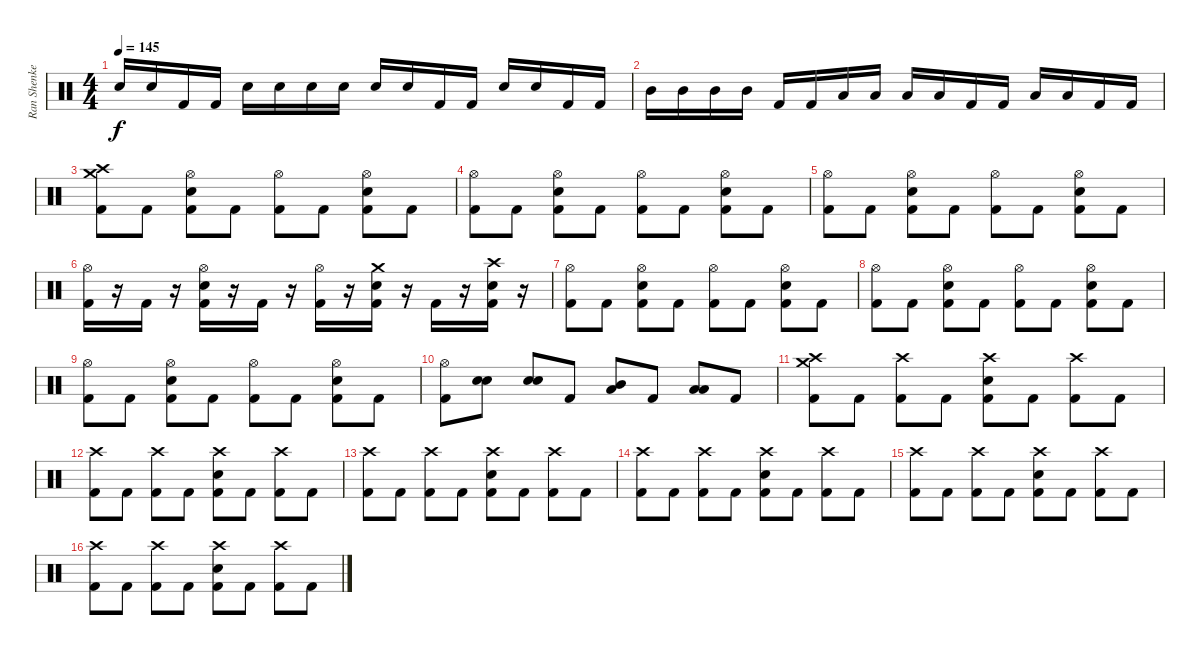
\track ("Ran Shenkerman" "Ran Shenke") {instrument percussion}
\staff {score}
\articulation defaults
\ts (4 4)
\tempo 145
\clef neutral
\ks c "Snare (hit) 2".16{dy f} "Snare (hit) 2".16 "Kick (hit) 2".16 "Kick (hit) 2".16 "Snare (hit) 2".16 "Snare (hit) 2".16 "Snare (hit) 2".16 "Snare (hit) 2".16 "Snare (hit) 2".16 "Snare (hit) 2".16 "Kick (hit) 2".16 "Kick (hit) 2".16 "Snare (hit) 2".16 "Snare (hit) 2".16 "Kick (hit) 2".16 "Kick (hit) 2".16
|
"Mid Tom (hit)".16 "Mid Tom (hit)".16 "Mid Tom (hit)".16 "Mid Tom (hit)".16 "Kick (hit) 2".16 "Kick (hit) 2".16 "Low Tom (hit)".16 "Low Tom (hit)".16 "Low Tom (hit)".16 "Low Tom (hit)".16 "Kick (hit) 2".16 "Kick (hit) 2".16 "Low Floor Tom (hit)".16 "Low Floor Tom (hit)".16 "Kick (hit) 2".16 "Kick (hit) 2".16 |
("Crash medium (hit)" "Crash high (hit)" "Kick (hit) 2").8 "Kick (hit) 2".8 ("Hi-Hat (open)" "Snare (hit) 2" "Kick (hit) 2").8 "Kick (hit) 2".8 ("Hi-Hat (open)" "Kick (hit) 2").8 "Kick (hit) 2".8 ("Hi-Hat (open)" "Snare (hit) 2" "Kick (hit) 2").8 "Kick (hit) 2".8 |
("Hi-Hat (open)" "Kick (hit) 2").8 "Kick (hit) 2".8 ("Hi-Hat (open)" "Snare (hit) 2" "Kick (hit) 2").8 "Kick (hit) 2".8 ("Hi-Hat (open)" "Kick (hit) 2").8 "Kick (hit) 2".8 ("Hi-Hat (open)" "Snare (hit) 2" "Kick (hit) 2").8 "Kick (hit) 2".8 |
("Hi-Hat (open)" "Kick (hit) 2").8 "Kick (hit) 2".8 ("Hi-Hat (open)" "Snare (hit) 2" "Kick (hit) 2").8 "Kick (hit) 2".8 ("Hi-Hat (open)" "Kick (hit) 2").8 "Kick (hit) 2".8 ("Hi-Hat (open)" "Snare (hit) 2" "Kick (hit) 2").8 "Kick (hit) 2".8 |
("Hi-Hat (open)" "Kick (hit) 2").16 r.16 "Kick (hit) 2".16 r.16 ("Hi-Hat (open)" "Snare (hit) 2" "Kick (hit) 2").16 r.16 "Kick (hit) 2".16 r.16 ("Hi-Hat (open)" "Kick (hit) 2").16 r.16 ("Crash medium (hit)" "Snare (hit) 2" "Kick (hit) 2").16 r.16 "Kick (hit) 2".16 r.16 ("Crash high (hit)" "Snare (hit) 2" "Kick (hit) 2").16 r.16 |
("Hi-Hat (open)" "Kick (hit) 2").8 "Kick (hit) 2".8 ("Hi-Hat (open)" "Snare (hit) 2" "Kick (hit) 2").8 "Kick (hit) 2".8 ("Hi-Hat (open)" "Kick (hit) 2").8 "Kick (hit) 2".8 ("Hi-Hat (open)" "Snare (hit) 2" "Kick (hit) 2").8 "Kick (hit) 2".8 |
("Hi-Hat (open)" "Kick (hit) 2").8 "Kick (hit) 2".8 ("Hi-Hat (open)" "Snare (hit) 2" "Kick (hit) 2").8 "Kick (hit) 2".8 ("Hi-Hat (open)" "Kick (hit) 2").8 "Kick (hit) 2".8 ("Hi-Hat (open)" "Snare (hit) 2" "Kick (hit) 2").8 "Kick (hit) 2".8 |
("Hi-Hat (open)" "Kick (hit) 2").8 "Kick (hit) 2".8 ("Hi-Hat (open)" "Snare (hit) 2" "Kick (hit) 2").8 "Kick (hit) 2".8 ("Hi-Hat (open)" "Kick (hit) 2").8 "Kick (hit) 2".8 ("Hi-Hat (open)" "Snare (hit) 2" "Kick (hit) 2").8 "Kick (hit) 2".8 |
("Hi-Hat (open)" "Kick (hit) 2").8 ("Snare (hit) 2" "Snare (hit) 2").8 ("Snare (hit) 2" "Snare (hit) 2").8 "Kick (hit) 2".8 ("Mid Tom (hit)" "Low Floor Tom (hit)").8 "Kick (hit) 2".8 ("Low Tom (hit)" "Low Floor Tom (hit)").8 "Kick (hit) 2".8 |
("Crash high (hit)" "Crash medium (hit)" "Kick (hit) 2").8 "Kick (hit) 2".8 ("Crash high (hit)" "Kick (hit) 2").8 "Kick (hit) 2".8 ("Crash high (hit)" "Snare (hit) 2" "Kick (hit) 2").8 "Kick (hit) 2".8 ("Crash high (hit)" "Kick (hit) 2").8 "Kick (hit) 2".8 |
("Crash high (hit)" "Kick (hit) 2").8 "Kick (hit) 2".8 ("Crash high (hit)" "Kick (hit) 2").8 "Kick (hit) 2".8 ("Crash high (hit)" "Snare (hit) 2" "Kick (hit) 2").8 "Kick (hit) 2".8 ("Crash high (hit)" "Kick (hit) 2").8 "Kick (hit) 2".8 |
("Crash high (hit)" "Kick (hit) 2").8 "Kick (hit) 2".8 ("Crash high (hit)" "Kick (hit) 2").8 "Kick (hit) 2".8 ("Crash high (hit)" "Snare (hit) 2" "Kick (hit) 2").8 "Kick (hit) 2".8 ("Crash high (hit)" "Kick (hit) 2").8 "Kick (hit) 2".8 |
("Crash high (hit)" "Kick (hit) 2").8 "Kick (hit) 2".8 ("Crash high (hit)" "Kick (hit) 2").8 "Kick (hit) 2".8 ("Crash high (hit)" "Snare (hit) 2" "Kick (hit) 2").8 "Kick (hit) 2".8 ("Crash high (hit)" "Kick (hit) 2").8 "Kick (hit) 2".8 |
("Crash high (hit)" "Kick (hit) 2").8 "Kick (hit) 2".8 ("Crash high (hit)" "Kick (hit) 2").8 "Kick (hit) 2".8 ("Crash high (hit)" "Snare (hit) 2" "Kick (hit) 2").8 "Kick (hit) 2".8 ("Crash high (hit)" "Kick (hit) 2").8 "Kick (hit) 2".8 |
("Crash high (hit)" "Kick (hit) 2").8 "Kick (hit) 2".8 ("Crash high (hit)" "Kick (hit) 2").8 "Kick (hit) 2".8 ("Crash high (hit)" "Snare (hit) 2" "Kick (hit) 2").8 "Kick (hit) 2".8 ("Crash high (hit)" "Kick (hit) 2").8 "Kick (hit) 2".8
